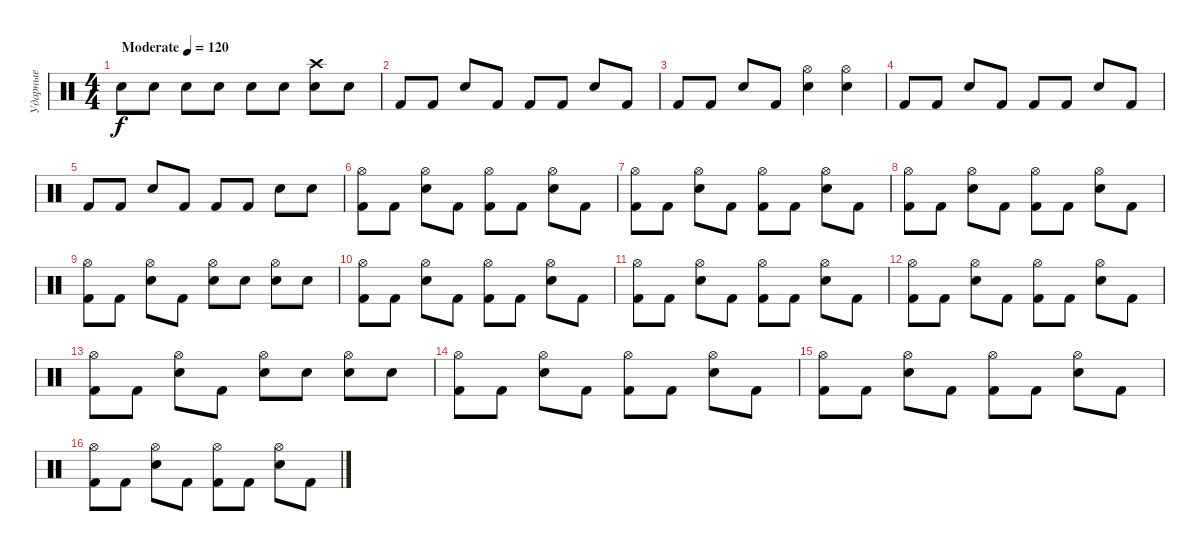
\track ("Ударные" "Ударные") {instrument percussion}
\staff {score}
\articulation defaults
\ts (4 4)
\tempo (120 "Moderate")
\clef neutral
\ks c "Snare (hit) 2".8{dy f} "Snare (hit) 2".8 "Snare (hit) 2".8 "Snare (hit) 2".8 "Snare (hit) 2".8 "Snare (hit) 2".8
("Crash high (hit)" "Snare (hit) 2").8 "Snare (hit) 2".8 |
"Kick (hit) 2".8 "Kick (hit) 2".8 "Snare (hit) 2".8 "Kick (hit) 2".8 "Kick (hit) 2".8 "Kick (hit) 2".8 "Snare (hit) 2".8 "Kick (hit) 2".8 |
"Kick (hit) 2".8 "Kick (hit) 2".8 "Snare (hit) 2".8 "Kick (hit) 2".8 ("Hi-Hat (open)" "Snare (hit) 2").4 ("Hi-Hat (open)" "Snare (hit) 2").4 |
"Kick (hit) 2".8 "Kick (hit) 2".8 "Snare (hit) 2".8 "Kick (hit) 2".8 "Kick (hit) 2".8 "Kick (hit) 2".8 "Snare (hit) 2".8 "Kick (hit) 2".8 |
"Kick (hit) 2".8 "Kick (hit) 2".8 "Snare (hit) 2".8 "Kick (hit) 2".8 "Kick (hit) 2".8 "Kick (hit) 2".8 "Snare (hit) 2".8 "Snare (hit) 2".8 |
("Hi-Hat (open)" "Kick (hit) 2").8 "Kick (hit) 2".8 ("Hi-Hat (open)" "Snare (hit) 2").8 "Kick (hit) 2".8 ("Hi-Hat (open)" "Kick (hit) 2").8 "Kick (hit) 2".8 ("Hi-Hat (open)" "Snare (hit) 2").8 "Kick (hit) 2".8 |
("Hi-Hat (open)" "Kick (hit) 2").8 "Kick (hit) 2".8 ("Hi-Hat (open)" "Snare (hit) 2").8 "Kick (hit) 2".8 ("Hi-Hat (open)" "Kick (hit) 2").8 "Kick (hit) 2".8 ("Hi-Hat (open)" "Snare (hit) 2").8 "Kick (hit) 2".8 |
("Hi-Hat (open)" "Kick (hit) 2").8 "Kick (hit) 2".8 ("Hi-Hat (open)" "Snare (hit) 2").8 "Kick (hit) 2".8 ("Hi-Hat (open)" "Kick (hit) 2").8 "Kick (hit) 2".8 ("Hi-Hat (open)" "Snare (hit) 2").8 "Kick (hit) 2".8 |
("Hi-Hat (open)" "Kick (hit) 2").8 "Kick (hit) 2".8 ("Hi-Hat (open)" "Snare (hit) 2").8 "Kick (hit) 2".8 ("Hi-Hat (open)" "Snare (hit) 2").8 "Snare (hit) 2".8 ("Hi-Hat (open)" "Snare (hit) 2").8 "Snare (hit) 2".8 |
("Hi-Hat (open)" "Kick (hit) 2").8 "Kick (hit) 2".8 ("Hi-Hat (open)" "Snare (hit) 2").8 "Kick (hit) 2".8 ("Hi-Hat (open)" "Kick (hit) 2").8 "Kick (hit) 2".8 ("Hi-Hat (open)" "Snare (hit) 2").8 "Kick (hit) 2".8 |
("Hi-Hat (open)" "Kick (hit) 2").8 "Kick (hit) 2".8 ("Hi-Hat (open)" "Snare (hit) 2").8 "Kick (hit) 2".8 ("Hi-Hat (open)" "Kick (hit) 2").8 "Kick (hit) 2".8 ("Hi-Hat (open)" "Snare (hit) 2").8 "Kick (hit) 2".8 |
("Hi-Hat (open)" "Kick (hit) 2").8 "Kick (hit) 2".8 ("Hi-Hat (open)" "Snare (hit) 2").8 "Kick (hit) 2".8 ("Hi-Hat (open)" "Kick (hit) 2").8 "Kick (hit) 2".8 ("Hi-Hat (open)" "Snare (hit) 2").8 "Kick (hit) 2".8 |
("Hi-Hat (open)" "Kick (hit) 2").8 "Kick (hit) 2".8 ("Hi-Hat (open)" "Snare (hit) 2").8 "Kick (hit) 2".8 ("Hi-Hat (open)" "Snare (hit) 2").8 "Snare (hit) 2".8 ("Hi-Hat (open)" "Snare (hit) 2").8 "Snare (hit) 2".8 |
("Hi-Hat (open)" "Kick (hit) 2").8 "Kick (hit) 2".8 ("Hi-Hat (open)" "Snare (hit) 2").8 "Kick (hit) 2".8 ("Hi-Hat (open)" "Kick (hit) 2").8 "Kick (hit) 2".8 ("Hi-Hat (open)" "Snare (hit) 2").8 "Kick (hit) 2".8 |
("Hi-Hat (open)" "Kick (hit) 2").8 "Kick (hit) 2".8 ("Hi-Hat (open)" "Snare (hit) 2").8 "Kick (hit) 2".8 ("Hi-Hat (open)" "Kick (hit) 2").8 "Kick (hit) 2".8 ("Hi-Hat (open)" "Snare (hit) 2").8 "Kick (hit) 2".8 |
("Hi-Hat (open)" "Kick (hit) 2").8 "Kick (hit) 2".8 ("Hi-Hat (open)" "Snare (hit) 2").8 "Kick (hit) 2".8 ("Hi-Hat (open)" "Kick (hit) 2").8 "Kick (hit) 2".8 ("Hi-Hat (open)" "Snare (hit) 2").8 "Kick (hit) 2".8
